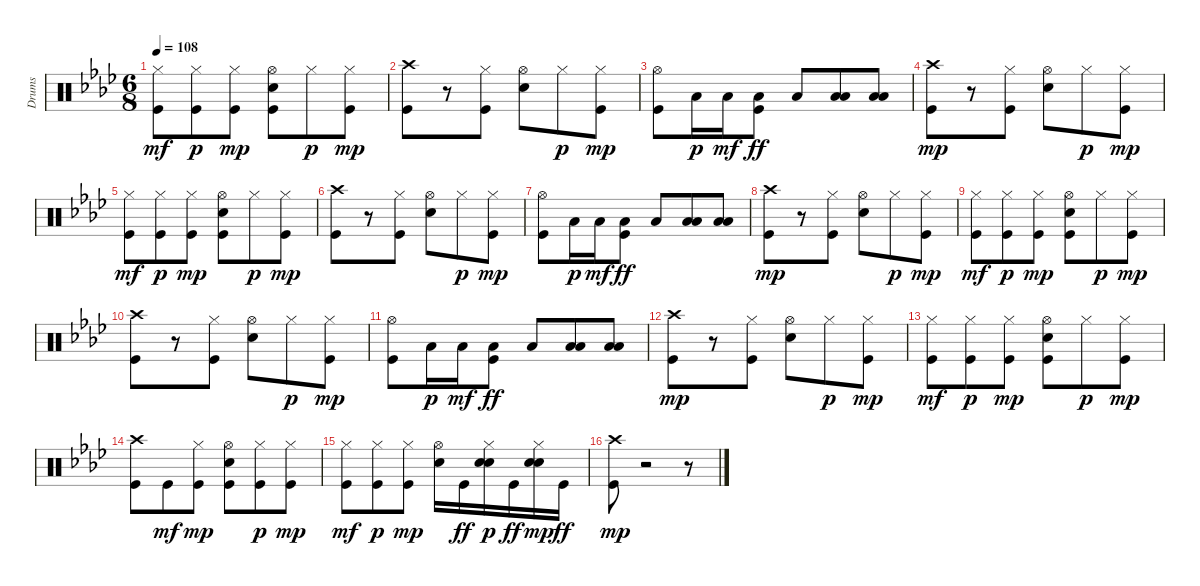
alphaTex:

\track ("Drums" "Drums") {instrument percussion}
\staff {score}
\articulation defaults
\ts (6 8)
\tempo 108
\clef neutral
\ks ab
("Kick (hit)" "Hi-Hat (closed)").8{dy mf} ("Kick (hit)" "Hi-Hat (closed)").8{dy p} ("Kick (hit)" "Hi-Hat (closed)").8{dy mp} ("Kick (hit)" "Electric Snare (hit)" "Hi-Hat (open)").8 "Hi-Hat (closed)".8{dy p} ("Kick (hit)" "Hi-Hat (closed)").8{dy mp} |
("Kick (hit)" "Crash high (hit)").8 r.8 ("Kick (hit)" "Hi-Hat (closed)").8 ("Electric Snare (hit)" "Hi-Hat (open)").8 "Hi-Hat (closed)".8{dy p} ("Kick (hit)" "Hi-Hat (closed)").8{dy mp} |
("Kick (hit)" "Hi-Hat (open)").8 "Low Tom (hit)".16{dy p} "Low Tom (hit)".16{dy mf} ("Kick (hit)" "Low Tom (hit)").8{dy ff} "Low Tom (hit)".8 ("Low Floor Tom (hit)" "Low Tom (hit)").8 ("Low Floor Tom (hit)" "Low Tom (hit)").8 |
("Kick (hit)" "Crash high (hit)").8{dy mp} r.8 ("Kick (hit)" "Hi-Hat (closed)").8 ("Electric Snare (hit)" "Hi-Hat (open)").8 "Hi-Hat (closed)".8{dy p} ("Kick (hit)" "Hi-Hat (closed)").8{dy mp} |
("Kick (hit)" "Hi-Hat (closed)").8{dy mf} ("Kick (hit)" "Hi-Hat (closed)").8{dy p} ("Kick (hit)" "Hi-Hat (closed)").8{dy mp} ("Kick (hit)" "Electric Snare (hit)" "Hi-Hat (open)").8 "Hi-Hat (closed)".8{dy p} ("Kick (hit)" "Hi-Hat (closed)").8{dy mp} |
("Kick (hit)" "Crash high (hit)").8 r.8 ("Kick (hit)" "Hi-Hat (closed)").8 ("Electric Snare (hit)" "Hi-Hat (open)").8 "Hi-Hat (closed)".8{dy p} ("Kick (hit)" "Hi-Hat (closed)").8{dy mp} |
("Kick (hit)" "Hi-Hat (open)").8 "Low Tom (hit)".16{dy p} "Low Tom (hit)".16{dy mf} ("Kick (hit)" "Low Tom (hit)").8{dy ff} "Low Tom (hit)".8 ("Low Floor Tom (hit)" "Low Tom (hit)").8 ("Low Floor Tom (hit)" "Low Tom (hit)").8 |
("Kick (hit)" "Crash high (hit)").8{dy mp} r.8 ("Kick (hit)" "Hi-Hat (closed)").8 ("Electric Snare (hit)" "Hi-Hat (open)").8 "Hi-Hat (closed)".8{dy p} ("Kick (hit)" "Hi-Hat (closed)").8{dy mp} |
("Kick (hit)" "Hi-Hat (closed)").8{dy mf} ("Kick (hit)" "Hi-Hat (closed)").8{dy p} ("Kick (hit)" "Hi-Hat (closed)").8{dy mp} ("Kick (hit)" "Electric Snare (hit)" "Hi-Hat (open)").8 "Hi-Hat (closed)".8{dy p} ("Kick (hit)" "Hi-Hat (closed)").8{dy mp} |
("Kick (hit)" "Crash high (hit)").8 r.8 ("Kick (hit)" "Hi-Hat (closed)").8 ("Electric Snare (hit)" "Hi-Hat (open)").8 "Hi-Hat (closed)".8{dy p} ("Kick (hit)" "Hi-Hat (closed)").8{dy mp} |
("Kick (hit)" "Hi-Hat (open)").8 "Low Tom (hit)".16{dy p} "Low Tom (hit)".16{dy mf} ("Kick (hit)" "Low Tom (hit)").8{dy ff} "Low Tom (hit)".8 ("Low Floor Tom (hit)" "Low Tom (hit)").8 ("Low Floor Tom (hit)" "Low Tom (hit)").8 |
("Kick (hit)" "Crash high (hit)").8{dy mp} r.8 ("Kick (hit)" "Hi-Hat (closed)").8 ("Electric Snare (hit)" "Hi-Hat (open)").8 "Hi-Hat (closed)".8{dy p} ("Kick (hit)" "Hi-Hat (closed)").8{dy mp} |
("Kick (hit)" "Hi-Hat (closed)").8{dy mf} ("Kick (hit)" "Hi-Hat (closed)").8{dy p} ("Kick (hit)" "Hi-Hat (closed)").8{dy mp} ("Kick (hit)" "Electric Snare (hit)" "Hi-Hat (open)").8 "Hi-Hat (closed)".8{dy p} ("Kick (hit)" "Hi-Hat (closed)").8{dy mp} |
("Kick (hit)" "Crash high (hit)").8 "Kick (hit)".8{dy mf} ("Kick (hit)" "Hi-Hat (closed)").8{dy mp} ("Kick (hit)" "Electric Snare (hit)" "Hi-Hat (open)").8 ("Kick (hit)" "Hi-Hat (closed)").8{dy p} ("Kick (hit)" "Hi-Hat (closed)").8{dy mp} |
("Kick (hit)" "Hi-Hat (closed)").8{dy mf} ("Kick (hit)" "Hi-Hat (closed)").8{dy p} ("Kick (hit)" "Hi-Hat (closed)").8{dy mp} ("Electric Snare (hit)" "Hi-Hat (open)").16 "Kick (hit)".16{dy ff} ("Electric Snare (hit)" "Electric Snare (hit)" "Hi-Hat (closed)").16{dy p} "Kick (hit)".16{dy ff} ("Electric Snare (hit)" "Electric Snare (hit)" "Hi-Hat (closed)").16{dy mp} "Kick (hit)".16{dy ff} |
("Kick (hit)" "Crash high (hit)").8{dy mp} r.2 r.8
